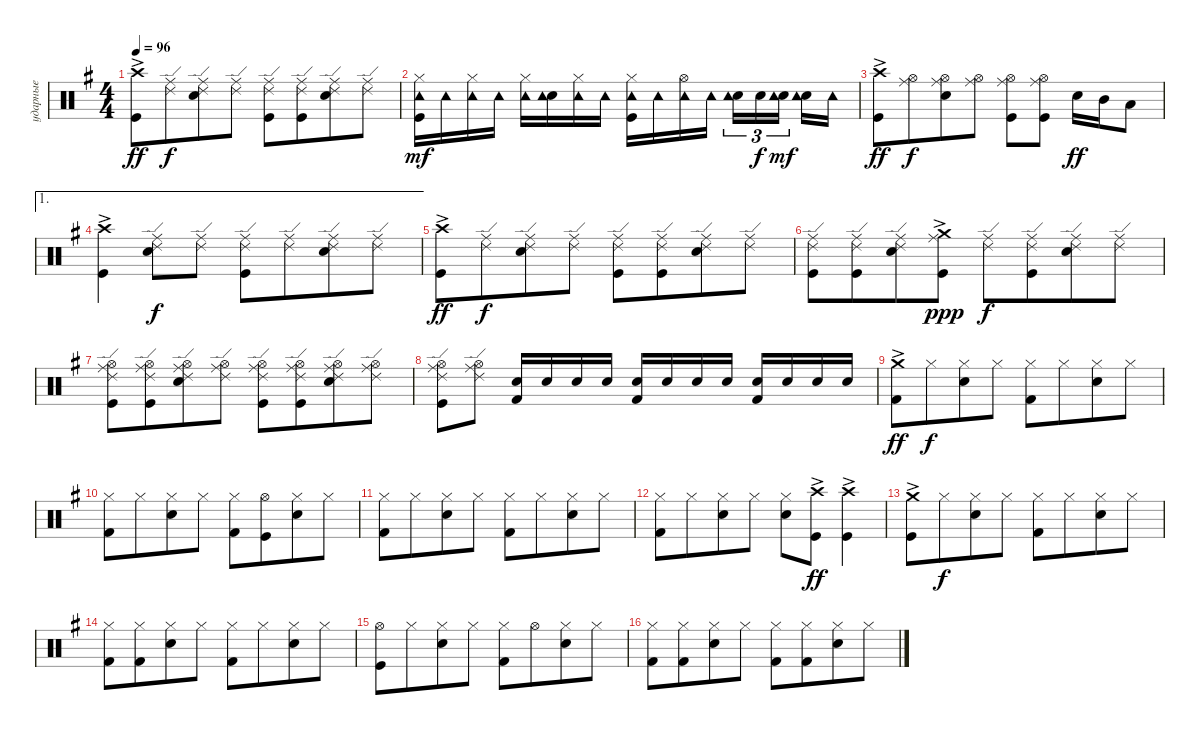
\track ("ударные" "ударные") {instrument percussion}
\staff {score}
\articulation defaults
\ts (4 4)
\tempo 96
\clef neutral
\ks eminor
("Kick (hit)" "Crash high (hit)"{ac}).8{dy ff} ("Ride (middle)" "Ride (edge) 2").8{dy f beam merge} ("Snare (hit) 2" "Ride (middle)" "Ride (edge) 2").8 ("Ride (middle)" "Ride (edge) 2").8 ("Kick (hit)" "Ride (middle)" "Ride (edge) 2").8 ("Kick (hit)" "Ride (middle)" "Ride (edge) 2").8{beam merge} ("Ride (middle)" "Ride (edge) 2" "Snare (hit) 2").8 ("Ride (middle)" "Ride (edge) 2").8 |
("Kick (hit)" "Hi-Hat (closed)" "Tambourine (hit)").16{dy mf} "Tambourine (hit)".16 ("Hi-Hat (closed)" "Tambourine (hit)").16 "Tambourine (hit)".16 ("Hi-Hat (closed)" "Tambourine (hit)").16 ("Snare (hit) 2" "Tambourine (hit)").16 ("Hi-Hat (closed)" "Tambourine (hit)").16 "Tambourine (hit)".16 ("Kick (hit)" "Hi-Hat (closed)" "Tambourine (hit)").16 "Tambourine (hit)".16 ("Hi-Hat (open)" "Tambourine (hit)").16 "Tambourine (hit)".16 ("Snare (hit) 2" "Tambourine (hit)").16{tu (3 2)} "Snare (hit) 2".16{tu (3 2) dy f} ("Snare (hit) 2" "Tambourine (hit)").16{tu (3 2) dy mf beam splitsecondary} ("Snare (hit) 2" "Tambourine (hit)").16 "Tambourine (hit)".16 |
("Kick (hit)" "Crash high (hit)"{ac}).8{dy ff} ("Hi-Hat (open)" "Ride (middle)").8{dy f beam merge} ("Snare (hit) 2" "Hi-Hat (open)" "Ride (middle)").8 ("Hi-Hat (open)" "Ride (middle)").8 ("Kick (hit)" "Hi-Hat (open)" "Ride (middle)").8 ("Kick (hit)" "Hi-Hat (open)" "Ride (middle)").8 "Snare (hit) 2".16{dy ff} "Mid Tom (hit)".16 "Low Tom (hit)".8 |
\ae 1
("Kick (hit)" "Crash high (hit)"{ac}).4 ("Snare (hit) 2" "Ride (middle)" "Ride (edge) 2").8{dy f} ("Ride (middle)" "Ride (edge) 2").8 ("Kick (hit)" "Ride (middle)" "Ride (edge) 2").8 ("Ride (middle)" "Ride (edge) 2").8{beam merge} ("Snare (hit) 2" "Ride (middle)" "Ride (edge) 2").8 ("Ride (middle)" "Ride (edge) 2").8 |
("Kick (hit)" "Crash high (hit)"{ac}).8{dy ff} ("Ride (middle)" "Ride (edge) 2").8{dy f beam merge} ("Snare (hit) 2" "Ride (middle)" "Ride (edge) 2").8 ("Ride (middle)" "Ride (edge) 2").8 ("Kick (hit)" "Ride (middle)" "Ride (edge) 2").8 ("Kick (hit)" "Ride (middle)" "Ride (edge) 2").8{beam merge} ("Ride (middle)" "Ride (edge) 2" "Snare (hit) 2").8 ("Ride (middle)" "Ride (edge) 2").8 |
("Kick (hit)" "Ride (middle)" "Ride (edge) 2").8 ("Kick (hit)" "Ride (middle)" "Ride (edge) 2").8{beam merge} ("Ride (middle)" "Ride (edge) 2" "Snare (hit) 2").8 ("Kick (hit)" "Crash medium (hit)"{ac} "Ride (middle)").8{dy ppp} ("Ride (middle)" "Ride (edge) 2").8{dy f} ("Ride (middle)" "Ride (edge) 2" "Kick (hit)").8{beam merge} ("Snare (hit) 2" "Ride (middle)" "Ride (edge) 2").8 ("Ride (middle)" "Ride (edge) 2").8 |
("Kick (hit)" "Ride (middle)" "Ride (edge) 2" "Hi-Hat (open)").8 ("Kick (hit)" "Ride (middle)" "Ride (edge) 2" "Hi-Hat (open)").8{beam merge} ("Ride (middle)" "Ride (edge) 2" "Snare (hit) 2" "Hi-Hat (open)").8 ("Ride (middle)" "Ride (edge) 2" "Hi-Hat (open)").8 ("Kick (hit)" "Ride (middle)" "Ride (edge) 2" "Hi-Hat (open)").8 ("Kick (hit)" "Ride (middle)" "Ride (edge) 2" "Hi-Hat (open)").8{beam merge} ("Ride (middle)" "Ride (edge) 2" "Snare (hit) 2" "Hi-Hat (open)").8 ("Ride (middle)" "Ride (edge) 2" "Hi-Hat (open)").8 |
("Kick (hit)" "Ride (middle)" "Ride (edge) 2" "Hi-Hat (open)").8 ("Ride (middle)" "Ride (edge) 2" "Hi-Hat (open)").8 ("Snare (hit) 2" "Kick (hit) 2").16 "Snare (hit) 2".16 "Snare (hit) 2".16 "Snare (hit) 2".16 ("Snare (hit) 2" "Kick (hit) 2").16 "Snare (hit) 2".16 "Snare (hit) 2".16 "Snare (hit) 2".16 ("Snare (hit) 2" "Kick (hit) 2").16 "Snare (hit) 2".16 "Snare (hit) 2".16 "Snare (hit) 2".16 |
("Crash medium (hit)"{ac} "Kick (hit) 2").8{dy ff} "Hi-Hat (closed)".8{dy f beam merge} ("Hi-Hat (closed)" "Snare (hit) 2").8 "Hi-Hat (closed)".8 ("Hi-Hat (closed)" "Kick (hit) 2").8 "Hi-Hat (closed)".8{beam merge} ("Hi-Hat (closed)" "Snare (hit) 2").8 "Hi-Hat (closed)".8 |
("Hi-Hat (closed)" "Kick (hit) 2").8 "Hi-Hat (closed)".8{beam merge} ("Hi-Hat (closed)" "Snare (hit) 2").8 "Hi-Hat (closed)".8 ("Hi-Hat (closed)" "Kick (hit) 2").8 ("Kick (hit)" "Hi-Hat (open)").8{beam merge} ("Hi-Hat (closed)" "Snare (hit) 2").8 "Hi-Hat (closed)".8 |
("Hi-Hat (closed)" "Kick (hit) 2").8 "Hi-Hat (closed)".8{beam merge} ("Hi-Hat (closed)" "Snare (hit) 2").8 "Hi-Hat (closed)".8 ("Hi-Hat (closed)" "Kick (hit) 2").8 "Hi-Hat (closed)".8{beam merge} ("Hi-Hat (closed)" "Snare (hit) 2").8 "Hi-Hat (closed)".8 |
("Hi-Hat (closed)" "Kick (hit) 2").8 "Hi-Hat (closed)".8{beam merge} ("Hi-Hat (closed)" "Snare (hit) 2").8 "Hi-Hat (closed)".8 ("Snare (hit) 2" "Hi-Hat (closed)").8 ("Kick (hit)" "Crash high (hit)"{ac}).8{dy ff} ("Kick (hit)" "Crash high (hit)"{ac}).4 |
("Kick (hit)" "Crash medium (hit)"{ac}).8 "Hi-Hat (closed)".8{dy f beam merge} ("Hi-Hat (closed)" "Snare (hit) 2").8 "Hi-Hat (closed)".8 ("Hi-Hat (closed)" "Kick (hit) 2").8 "Hi-Hat (closed)".8{beam merge} ("Hi-Hat (closed)" "Snare (hit) 2").8 "Hi-Hat (closed)".8 |
("Hi-Hat (closed)" "Kick (hit) 2").8 ("Hi-Hat (closed)" "Kick (hit) 2").8{beam merge} ("Hi-Hat (closed)" "Snare (hit) 2").8 "Hi-Hat (closed)".8 ("Hi-Hat (closed)" "Kick (hit) 2").8 "Hi-Hat (closed)".8{beam merge} ("Hi-Hat (closed)" "Snare (hit) 2").8 "Hi-Hat (closed)".8 |
("Kick (hit)" "Hi-Hat (open)").8 "Hi-Hat (closed)".8{beam merge} ("Hi-Hat (closed)" "Snare (hit) 2").8 "Hi-Hat (closed)".8 ("Hi-Hat (closed)" "Kick (hit) 2").8 "Hi-Hat (open)".8{beam merge} ("Hi-Hat (closed)" "Snare (hit) 2").8 "Hi-Hat (closed)".8 |
("Hi-Hat (closed)" "Kick (hit) 2").8 ("Hi-Hat (closed)" "Kick (hit) 2").8{beam merge} ("Hi-Hat (closed)" "Snare (hit) 2").8 "Hi-Hat (closed)".8 ("Hi-Hat (closed)" "Kick (hit) 2").8 ("Hi-Hat (closed)" "Kick (hit) 2").8{beam merge} ("Hi-Hat (closed)" "Snare (hit) 2").8 "Hi-Hat (closed)".8
